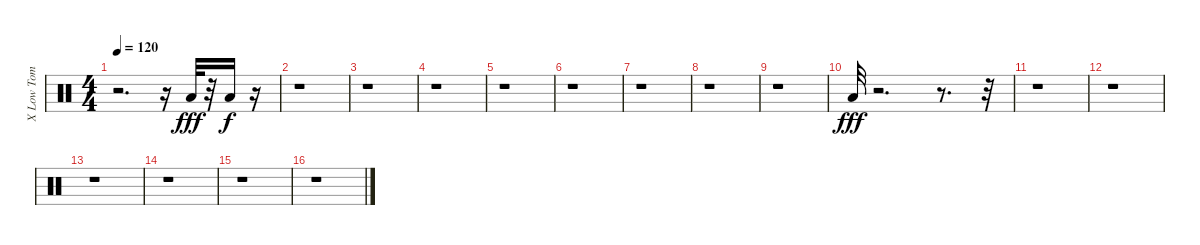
\track ("X Low Tom           " "X Low Tom ") {instrument percussion}
\staff {score}
\articulation defaults
\ts (4 4)
\tempo 120
\clef neutral
\ks c
r.2{d dy f} r.16 "Low Floor Tom (hit)".32{dy fff} r.32 "Low Floor Tom (hit)".16{dy f} r.16 |
r.1 |
r.1 |
r.1 |
r.1 |
r.1 |
r.1 |
r.1 |
r.1 |
"Low Floor Tom (hit)".32{dy fff} r.2{d} r.8{d} r.32 |
r.1 |
r.1 |
r.1 |
r.1 |
r.1 |
r.1
